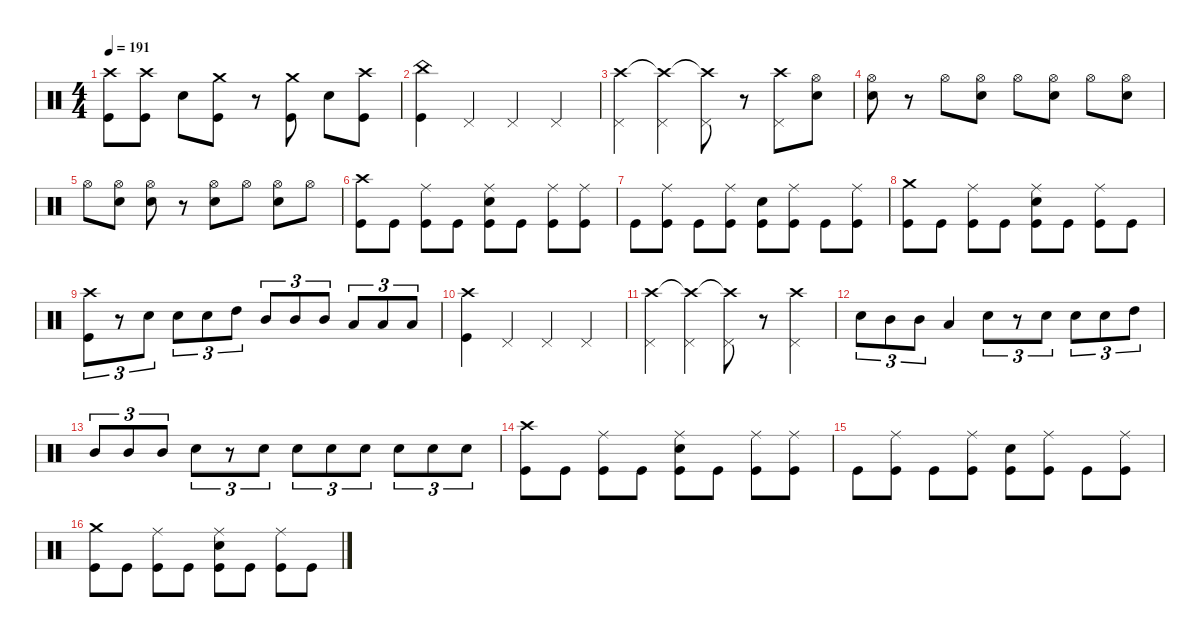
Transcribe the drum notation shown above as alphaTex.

\defaultSystemsLayout 4
\hideDynamics
\bracketExtendMode nobrackets
\singleTrackTrackNamePolicy hidden
\multiTrackTrackNamePolicy hidden
\firstSystemTrackNameMode fullname
\firstSystemTrackNameOrientation horizontal
\otherSystemsTrackNameOrientation horizontal
\track ("Drumkit" "drm.") {instrument percussion}
\staff {score}
\articulation defaults
\ts (4 4)
\tempo 191
\clef neutral
\ks c
("Kick (hit)"{t} "Crash high (hit)").8{dy f beam Down} ("Crash high (hit)" "Kick (hit)").8{beam Down} "Snare (hit) 2".8{beam Down} ("Crash medium (hit)" "Kick (hit)").8{beam Down} r.8{beam Down} ("Crash medium (hit)" "Kick (hit)").8{beam Down} "Snare (hit) 2".8{beam Down} ("Crash high (hit)" "Kick (hit)").8{beam Down} |
("China (hit)" "Kick (hit)").4{beam Down} "Pedal Hi-Hat (hit)".4{beam Up} "Pedal Hi-Hat (hit)".4{beam Up} "Pedal Hi-Hat (hit)".4{beam Up} |
("Pedal Hi-Hat (hit)" "Crash high (hit)").4{beam Down} ("Pedal Hi-Hat (hit)" "Crash high (hit)"{t}).4{beam Down} ("Pedal Hi-Hat (hit)" "Crash high (hit)"{t}).8{beam Down} r.8{beam Down} ("Pedal Hi-Hat (hit)" "Crash high (hit)").8{beam Down} ("Hi-Hat (open)" "Snare (hit) 2").8{beam Down} |
("Hi-Hat (open)" "Snare (hit) 2").8{beam Down} r.8{beam Down} "Hi-Hat (open)".8{beam Down} ("Hi-Hat (open)" "Snare (hit) 2").8{beam Down} "Hi-Hat (open)".8{beam Down} ("Hi-Hat (open)" "Snare (hit) 2").8{beam Down} "Hi-Hat (open)".8{beam Down} ("Hi-Hat (open)" "Snare (hit) 2").8{beam Down} |
"Hi-Hat (open)".8{beam Down} ("Hi-Hat (open)" "Snare (hit) 2").8{beam Down} ("Hi-Hat (open)" "Snare (hit) 2").8{beam Down} r.8{beam Down} ("Hi-Hat (open)" "Snare (hit) 2").8{beam Down} "Hi-Hat (open)".8{beam Down} ("Hi-Hat (open)" "Snare (hit) 2").8{beam Down} "Hi-Hat (open)".8{beam Down} |
("Crash high (hit)" "Kick (hit)").8{beam Down} "Kick (hit)".8{beam Down} ("Ride (middle)" "Kick (hit)").8{dy mf beam Down} "Kick (hit)".8{dy f beam Down} ("Ride (middle)" "Snare (hit) 2" "Kick (hit)").8{beam Down} "Kick (hit)".8{beam Down} ("Ride (middle)" "Kick (hit)").8{beam Down} ("Ride (middle)" "Kick (hit)").8{beam Down} |
"Kick (hit)".8{beam Down} ("Ride (middle)" "Kick (hit)").8{beam Down} "Kick (hit)".8{beam Down} ("Ride (middle)" "Kick (hit)").8{beam Down} ("Snare (hit) 2" "Kick (hit)").8{beam Down} ("Ride (middle)" "Kick (hit)").8{beam Down} "Kick (hit)".8{beam Down} ("Ride (middle)" "Kick (hit)").8{beam Down} |
("Crash medium (hit)" "Kick (hit)").8{beam Down} "Kick (hit)".8{beam Down} ("Ride (middle)" "Kick (hit)").8{dy mf beam Down} "Kick (hit)".8{dy f beam Down} ("Ride (middle)" "Snare (hit) 2" "Kick (hit)").8{dy mf beam Down} "Kick (hit)".8{dy f beam Down} ("Ride (middle)" "Kick (hit)").8{dy mf beam Down} "Kick (hit)".8{dy f beam Down} |
("Crash high (hit)" "Kick (hit)").8{tu (3 2) beam Down} r.8{tu (3 2) beam Down} "Snare (hit) 2".8{tu (3 2) beam Down} "Snare (hit) 2".8{tu (3 2) beam Down} "Snare (hit) 2".8{tu (3 2) beam Down} "High Tom (hit)".8{tu (3 2) dy mf beam Down} "Mid Tom (hit)".8{tu (3 2) beam Up} "Mid Tom (hit)".8{tu (3 2) beam Up} "Mid Tom (hit)".8{tu (3 2) beam Up} "Low Tom (hit)".8{tu (3 2) beam Up} "Low Tom (hit)".8{tu (3 2) beam Up} "Low Tom (hit)".8{tu (3 2) beam Up} |
("Crash high (hit)" "Kick (hit)").4{dy f beam Down} "Pedal Hi-Hat (hit)".4{beam Up} "Pedal Hi-Hat (hit)".4{beam Up} "Pedal Hi-Hat (hit)".4{beam Up} |
("Pedal Hi-Hat (hit)" "Crash high (hit)").4{beam Down} ("Pedal Hi-Hat (hit)" "Crash high (hit)"{t}).4{beam Down} ("Pedal Hi-Hat (hit)" "Crash high (hit)"{t}).8{beam Down} r.8{beam Down} ("Pedal Hi-Hat (hit)" "Crash high (hit)").4{beam Down} |
"Snare (hit) 2".8{tu (3 2) beam Down} "Mid Tom (hit)".8{tu (3 2) beam Down} "Mid Tom (hit)".8{tu (3 2) beam Down} "Low Tom (hit)".4{beam Up} "Snare (hit) 2".8{tu (3 2) beam Down} r.8{tu (3 2) beam Down} "Snare (hit) 2".8{tu (3 2) beam Down} "Snare (hit) 2".8{tu (3 2) beam Down} "Snare (hit) 2".8{tu (3 2) beam Down} "High Tom (hit)".8{tu (3 2) beam Down} |
"Mid Tom (hit)".8{tu (3 2) beam Up} "Mid Tom (hit)".8{tu (3 2) beam Up} "Mid Tom (hit)".8{tu (3 2) beam Up} "Snare (hit) 2".8{tu (3 2) beam Down} r.8{tu (3 2) beam Down} "Snare (hit) 2".8{tu (3 2) beam Down} "Snare (hit) 2".8{tu (3 2) beam Down} "Snare (hit) 2".8{tu (3 2) dy mp beam Down} "Snare (hit) 2".8{tu (3 2) dy f beam Down} "Snare (hit) 2".8{tu (3 2) dy mp beam Down} "Snare (hit) 2".8{tu (3 2) dy f beam Down} "Snare (hit) 2".8{tu (3 2) beam Down} |
("Crash high (hit)" "Kick (hit)").8{beam Down} "Kick (hit)".8{beam Down} ("Ride (middle)" "Kick (hit)").8{dy mf beam Down} "Kick (hit)".8{dy f beam Down} ("Ride (middle)" "Snare (hit) 2" "Kick (hit)").8{beam Down} "Kick (hit)".8{beam Down} ("Ride (middle)" "Kick (hit)").8{beam Down} ("Ride (middle)" "Kick (hit)").8{beam Down} |
"Kick (hit)".8{beam Down} ("Ride (middle)" "Kick (hit)").8{beam Down} "Kick (hit)".8{beam Down} ("Ride (middle)" "Kick (hit)").8{beam Down} ("Snare (hit) 2" "Kick (hit)").8{beam Down} ("Ride (middle)" "Kick (hit)").8{beam Down} "Kick (hit)".8{beam Down} ("Ride (middle)" "Kick (hit)").8{beam Down} |
("Crash medium (hit)" "Kick (hit)").8{beam Down} "Kick (hit)".8{beam Down} ("Ride (middle)" "Kick (hit)").8{dy mf beam Down} "Kick (hit)".8{dy f beam Down} ("Ride (middle)" "Snare (hit) 2" "Kick (hit)").8{dy mf beam Down} "Kick (hit)".8{dy f beam Down} ("Ride (middle)" "Kick (hit)").8{dy mf beam Down} "Kick (hit)".8{dy f beam Down}
